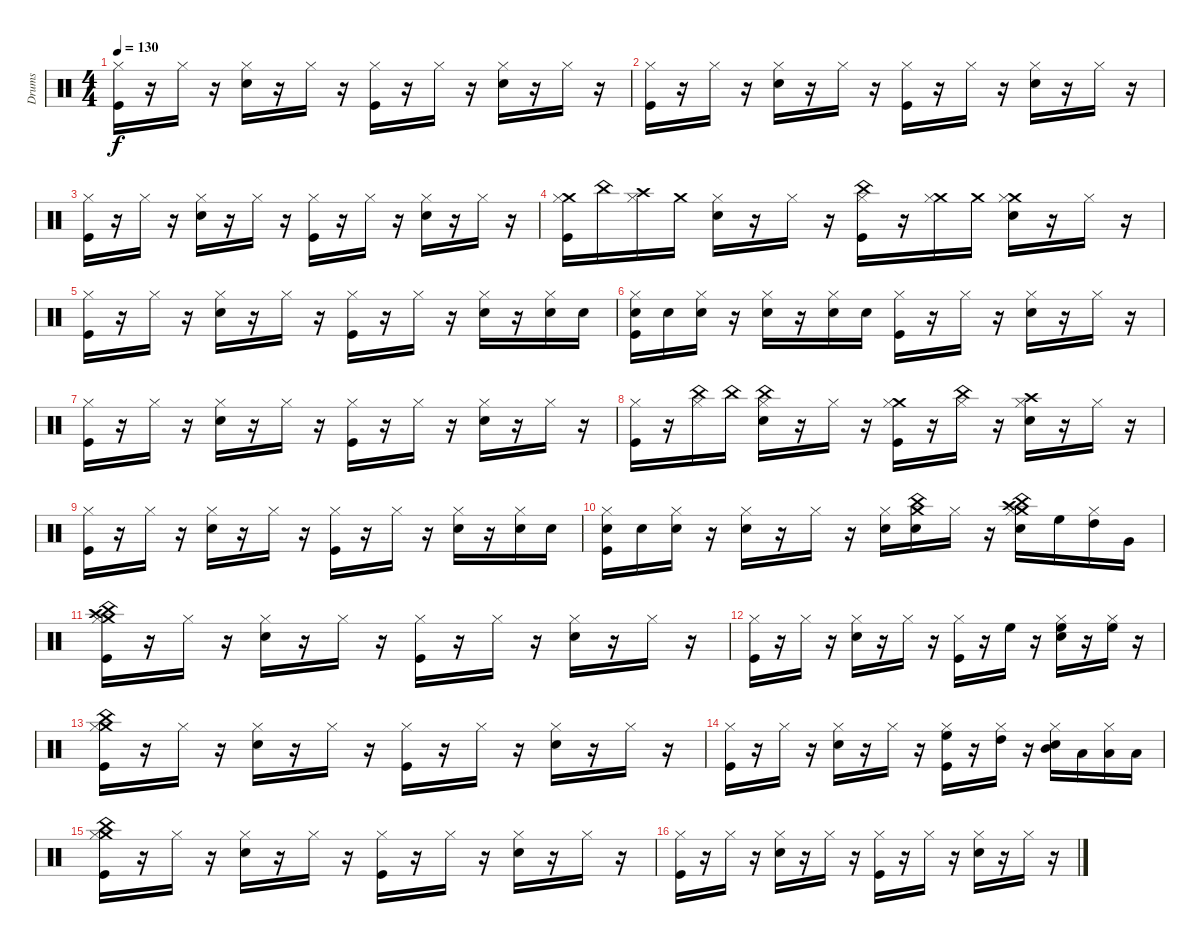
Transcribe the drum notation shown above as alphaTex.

\track ("Drums" "Drums") {instrument percussion}
\staff {score}
\articulation defaults
\ts (4 4)
\tempo 130
\clef neutral
\ks c
("Kick (hit)" "Hi-Hat (closed)").16{dy f} r.16 "Hi-Hat (closed)".16 r.16 ("Snare (hit) 2" "Hi-Hat (closed)").16 r.16 "Hi-Hat (closed)".16 r.16 ("Kick (hit)" "Hi-Hat (closed)").16 r.16 "Hi-Hat (closed)".16 r.16 ("Snare (hit) 2" "Hi-Hat (closed)").16 r.16 "Hi-Hat (closed)".16 r.16 |
("Kick (hit)" "Hi-Hat (closed)").16 r.16 "Hi-Hat (closed)".16 r.16 ("Snare (hit) 2" "Hi-Hat (closed)").16 r.16 "Hi-Hat (closed)".16 r.16 ("Kick (hit)" "Hi-Hat (closed)").16 r.16 "Hi-Hat (closed)".16 r.16 ("Snare (hit) 2" "Hi-Hat (closed)").16 r.16 "Hi-Hat (closed)".16 r.16 |
("Kick (hit)" "Hi-Hat (closed)").16 r.16 "Hi-Hat (closed)".16 r.16 ("Snare (hit) 2" "Hi-Hat (closed)").16 r.16 "Hi-Hat (closed)".16 r.16 ("Kick (hit)" "Hi-Hat (closed)").16 r.16 "Hi-Hat (closed)".16 r.16 ("Snare (hit) 2" "Hi-Hat (closed)").16 r.16 "Hi-Hat (closed)".16 r.16 |
("Crash medium (hit)" "Kick (hit)" "Hi-Hat (closed)").16 "China (hit)".16 ("Crash high (hit)" "Hi-Hat (closed)").16 "Crash medium (hit)".16 ("Snare (hit) 2" "Hi-Hat (closed)").16 r.16 "Hi-Hat (closed)".16 r.16 ("China (hit)" "Kick (hit)" "Hi-Hat (closed)").16 r.16 ("Crash medium (hit)" "Hi-Hat (closed)").16 "Crash medium (hit)".16 ("Crash medium (hit)" "Snare (hit) 2" "Hi-Hat (closed)").16 r.16 "Hi-Hat (closed)".16 r.16 |
("Kick (hit)" "Hi-Hat (closed)").16 r.16 "Hi-Hat (closed)".16 r.16 ("Snare (hit) 2" "Hi-Hat (closed)").16 r.16 "Hi-Hat (closed)".16 r.16 ("Kick (hit)" "Hi-Hat (closed)").16 r.16 "Hi-Hat (closed)".16 r.16 ("Snare (hit) 2" "Hi-Hat (closed)").16 r.16 ("Electric Snare (hit)" "Hi-Hat (closed)").16 "Electric Snare (hit)".16 |
("Electric Snare (hit)" "Kick (hit)" "Hi-Hat (closed)").16 "Electric Snare (hit)".16 ("Electric Snare (hit)" "Hi-Hat (closed)").16 r.16 ("Snare (hit) 2" "Hi-Hat (closed)").16 r.16 ("Snare (hit) 2" "Hi-Hat (closed)").16 "Snare (hit) 2".16 ("Kick (hit)" "Hi-Hat (closed)").16 r.16 "Hi-Hat (closed)".16 r.16 ("Snare (hit) 2" "Hi-Hat (closed)").16 r.16 "Hi-Hat (closed)".16 r.16 |
("Kick (hit)" "Hi-Hat (closed)").16 r.16 "Hi-Hat (closed)".16 r.16 ("Snare (hit) 2" "Hi-Hat (closed)").16 r.16 "Hi-Hat (closed)".16 r.16 ("Kick (hit)" "Hi-Hat (closed)").16 r.16 "Hi-Hat (closed)".16 r.16 ("Snare (hit) 2" "Hi-Hat (closed)").16 r.16 "Hi-Hat (closed)".16 r.16 |
("Kick (hit)" "Hi-Hat (closed)").16 r.16 ("China (hit)" "Hi-Hat (closed)").16 "China (hit)".16 ("China (hit)" "Snare (hit) 2" "Hi-Hat (closed)").16 r.16 "Hi-Hat (closed)".16 r.16 ("Crash medium (hit)" "Kick (hit)" "Hi-Hat (closed)").16 r.16 ("China (hit)" "Hi-Hat (closed)").16 r.16 ("Crash high (hit)" "Snare (hit) 2" "Hi-Hat (closed)").16 r.16 "Hi-Hat (closed)".16 r.16 |
("Kick (hit)" "Hi-Hat (closed)").16 r.16 "Hi-Hat (closed)".16 r.16 ("Snare (hit) 2" "Hi-Hat (closed)").16 r.16 "Hi-Hat (closed)".16 r.16 ("Kick (hit)" "Hi-Hat (closed)").16 r.16 "Hi-Hat (closed)".16 r.16 ("Snare (hit) 2" "Hi-Hat (closed)").16 r.16 ("Electric Snare (hit)" "Hi-Hat (closed)").16 "Electric Snare (hit)".16 |
("Electric Snare (hit)" "Kick (hit)" "Hi-Hat (closed)").16 "Electric Snare (hit)".16 ("Electric Snare (hit)" "Hi-Hat (closed)").16 r.16 ("Electric Snare (hit)" "Hi-Hat (closed)").16 r.16 "Hi-Hat (closed)".16 r.16 ("Electric Snare (hit)" "Hi-Hat (closed)").16 ("China (hit)" "Crash medium (hit)" "Electric Snare (hit)").16 "Hi-Hat (closed)".16 r.16 ("Crash high (hit)" "China (hit)" "Crash medium (hit)" "Snare (hit) 2" "Hi-Hat (closed)").16 "High Floor Tom (hit)".16 ("High Tom (hit)" "Hi-Hat (closed)").16 "Very Low Tom (hit)".16 |
("Crash high (hit)" "China (hit)" "Crash medium (hit)" "Kick (hit)" "Hi-Hat (closed)").16 r.16 "Hi-Hat (closed)".16 r.16 ("Snare (hit) 2" "Hi-Hat (closed)").16 r.16 "Hi-Hat (closed)".16 r.16 ("Kick (hit)" "Hi-Hat (closed)").16 r.16 "Hi-Hat (closed)".16 r.16 ("Snare (hit) 2" "Hi-Hat (closed)").16 r.16 "Hi-Hat (closed)".16 r.16 |
("Kick (hit)" "Hi-Hat (closed)").16 r.16 "Hi-Hat (closed)".16 r.16 ("Snare (hit) 2" "Hi-Hat (closed)").16 r.16 "Hi-Hat (closed)".16 r.16 ("Kick (hit)" "Hi-Hat (closed)").16 r.16 "High Floor Tom (hit)".16 r.16 ("High Floor Tom (hit)" "Snare (hit) 2" "Hi-Hat (closed)").16 r.16 ("High Floor Tom (hit)" "Hi-Hat (closed)").16 r.16 |
("China (hit)" "Crash medium (hit)" "Kick (hit)" "Hi-Hat (closed)").16 r.16 "Hi-Hat (closed)".16 r.16 ("Snare (hit) 2" "Hi-Hat (closed)").16 r.16 "Hi-Hat (closed)".16 r.16 ("Kick (hit)" "Hi-Hat (closed)").16 r.16 "Hi-Hat (closed)".16 r.16 ("Snare (hit) 2" "Hi-Hat (closed)").16 r.16 "Hi-Hat (closed)".16 r.16 |
("Kick (hit)" "Hi-Hat (closed)").16 r.16 "Hi-Hat (closed)".16 r.16 ("Snare (hit) 2" "Hi-Hat (closed)").16 r.16 "Hi-Hat (closed)".16 r.16 ("High Floor Tom (hit)" "Kick (hit)" "Hi-Hat (closed)").16 r.16 ("High Tom (hit)" "Hi-Hat (closed)").16 r.16 ("Mid Tom (hit)" "Snare (hit) 2" "Hi-Hat (closed)").16 "Low Tom (hit)".16 ("Low Tom (hit)" "Hi-Hat (closed)").16 "Low Floor Tom (hit)".16 |
("China (hit)" "Crash medium (hit)" "Kick (hit)" "Hi-Hat (closed)").16 r.16 "Hi-Hat (closed)".16 r.16 ("Snare (hit) 2" "Hi-Hat (closed)").16 r.16 "Hi-Hat (closed)".16 r.16 ("Kick (hit)" "Hi-Hat (closed)").16 r.16 "Hi-Hat (closed)".16 r.16 ("Snare (hit) 2" "Hi-Hat (closed)").16 r.16 "Hi-Hat (closed)".16 r.16 |
("Kick (hit)" "Hi-Hat (closed)").16 r.16 "Hi-Hat (closed)".16 r.16 ("Snare (hit) 2" "Hi-Hat (closed)").16 r.16 "Hi-Hat (closed)".16 r.16 ("Kick (hit)" "Hi-Hat (closed)").16 r.16 "Hi-Hat (closed)".16 r.16 ("Snare (hit) 2" "Hi-Hat (closed)").16 r.16 "Hi-Hat (closed)".16 r.16
